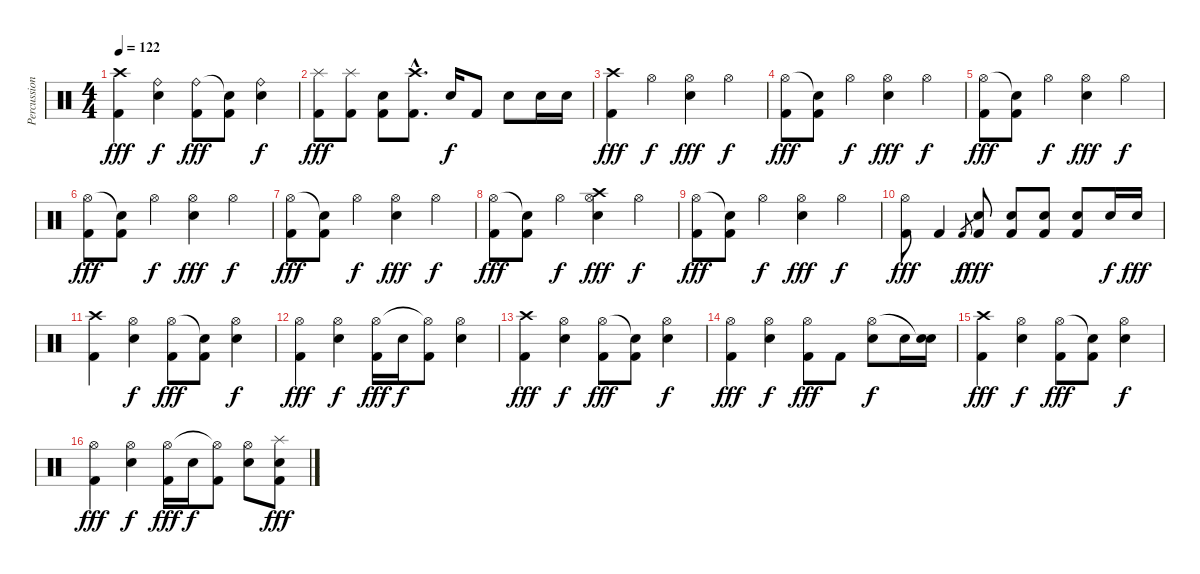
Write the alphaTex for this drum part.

\track ("Percussions" "Percussion") {instrument percussion}
\staff {score}
\articulation defaults
\ts (4 4)
\tempo 122
\clef neutral
\ks c
("Crash high (hit)" "Kick (hit) 2").4{dy fff} ("Snare (hit) 2" "Ride (bell)").4{dy f} ("Kick (hit) 2" "Ride (bell)").8{dy fff} ("Kick (hit) 2" "Snare (hit)"{t}).8 ("Snare (hit) 2" "Ride (bell)").4{dy f} |
("Splash (hit)" "Kick (hit) 2").8{dy fff} ("Splash (hit)" "Kick (hit) 2").8 ("Snare (hit) 2" "Kick (hit) 2").8 ("Crash high (hit)"{hac} "Kick (hit) 2"{hac}).8{d} "Snare (hit) 2".16{dy f} "Kick (hit) 2".8 "Snare (hit) 2".8 "Snare (hit) 2".16 "Snare (hit) 2".16 |
("Crash high (hit)" "Kick (hit) 2").4{dy fff} "Hi-Hat (open)".4{dy f} ("Snare (hit) 2" "Hi-Hat (open)").4{dy fff} "Hi-Hat (open)".4{dy f} |
("Kick (hit) 2" "Hi-Hat (open)").8{dy fff} ("Kick (hit) 2" "Snare (hit)"{t}).8 "Hi-Hat (open)".4{dy f} ("Snare (hit) 2" "Hi-Hat (open)").4{dy fff} "Hi-Hat (open)".4{dy f} |
("Kick (hit) 2" "Hi-Hat (open)").8{dy fff} ("Kick (hit) 2" "Snare (hit)"{t}).8 "Hi-Hat (open)".4{dy f} ("Snare (hit) 2" "Hi-Hat (open)").4{dy fff} "Hi-Hat (open)".4{dy f} |
("Kick (hit) 2" "Hi-Hat (open)").8{dy fff} ("Kick (hit) 2" "Snare (hit)"{t}).8 "Hi-Hat (open)".4{dy f} ("Snare (hit) 2" "Hi-Hat (open)").4{dy fff} "Hi-Hat (open)".4{dy f} |
("Kick (hit) 2" "Hi-Hat (open)").8{dy fff} ("Kick (hit) 2" "Snare (hit)"{t}).8 "Hi-Hat (open)".4{dy f} ("Snare (hit) 2" "Hi-Hat (open)").4{dy fff} "Hi-Hat (open)".4{dy f} |
("Kick (hit) 2" "Hi-Hat (open)").8{dy fff} ("Kick (hit) 2" "Snare (hit)"{t}).8 "Hi-Hat (open)".4{dy f} ("Crash high (hit)" "Snare (hit) 2" "Hi-Hat (open)").4{dy fff} "Hi-Hat (open)".4{dy f} |
("Kick (hit) 2" "Hi-Hat (open)").8{dy fff} ("Kick (hit) 2" "Snare (hit)"{t}).8 "Hi-Hat (open)".4{dy f} ("Snare (hit) 2" "Hi-Hat (open)").4{dy fff} "Hi-Hat (open)".4{dy f} |
("Kick (hit) 2" "Hi-Hat (open)").8{dy fff} "Kick (hit) 2".4 "Kick (hit) 2".8{gr dy f} ("Snare (hit) 2" "Kick (hit) 2").8{dy fff} ("Snare (hit) 2" "Kick (hit) 2").8 ("Snare (hit) 2" "Kick (hit) 2").8 ("Snare (hit) 2" "Kick (hit) 2").8 "Snare (hit) 2".16{dy f} "Snare (hit) 2".16{dy fff} |
("Crash high (hit)" "Kick (hit) 2").4 ("Snare (hit) 2" "Hi-Hat (open)").4{dy f} ("Kick (hit) 2" "Hi-Hat (open)").8{dy fff} ("Kick (hit) 2" "Snare (hit)"{t}).8 ("Snare (hit) 2" "Hi-Hat (open)").4{dy f} |
("Kick (hit) 2" "Hi-Hat (open)").4{dy fff} ("Snare (hit) 2" "Hi-Hat (open)").4{dy f} ("Kick (hit) 2" "Hi-Hat (open)").16{dy fff} "Snare (hit) 2".16{dy f} ("Kick (hit) 2" "Hi-Hat (open)"{t}).8 ("Snare (hit) 2" "Hi-Hat (open)").4 |
("Crash high (hit)" "Kick (hit) 2").4{dy fff} ("Snare (hit) 2" "Hi-Hat (open)").4{dy f} ("Kick (hit) 2" "Hi-Hat (open)").8{dy fff} ("Kick (hit) 2" "Snare (hit)"{t}).8 ("Snare (hit) 2" "Hi-Hat (open)").4{dy f} |
("Kick (hit) 2" "Hi-Hat (open)").4{dy fff} ("Snare (hit) 2" "Hi-Hat (open)").4{dy f} ("Kick (hit) 2" "Hi-Hat (open)").8{dy fff} "Kick (hit) 2".8 ("Snare (hit) 2" "Hi-Hat (open)").8{dy f} "Snare (hit) 2".16 ("Snare (hit) 2" "Snare (hit)"{t}).16 |
("Crash high (hit)" "Kick (hit) 2").4{dy fff} ("Snare (hit) 2" "Hi-Hat (open)").4{dy f} ("Kick (hit) 2" "Hi-Hat (open)").8{dy fff} ("Kick (hit) 2" "Snare (hit)"{t}).8 ("Snare (hit) 2" "Hi-Hat (open)").4{dy f} |
("Kick (hit) 2" "Hi-Hat (open)").4{dy fff} ("Snare (hit) 2" "Hi-Hat (open)").4{dy f} ("Kick (hit) 2" "Hi-Hat (open)").16{dy fff} "Snare (hit) 2".16{dy f} ("Kick (hit) 2" "Hi-Hat (open)"{t}).8 ("Snare (hit) 2" "Hi-Hat (open)").8 ("Splash (hit)" "Kick (hit) 2" "Snare (hit)").8{dy fff}
